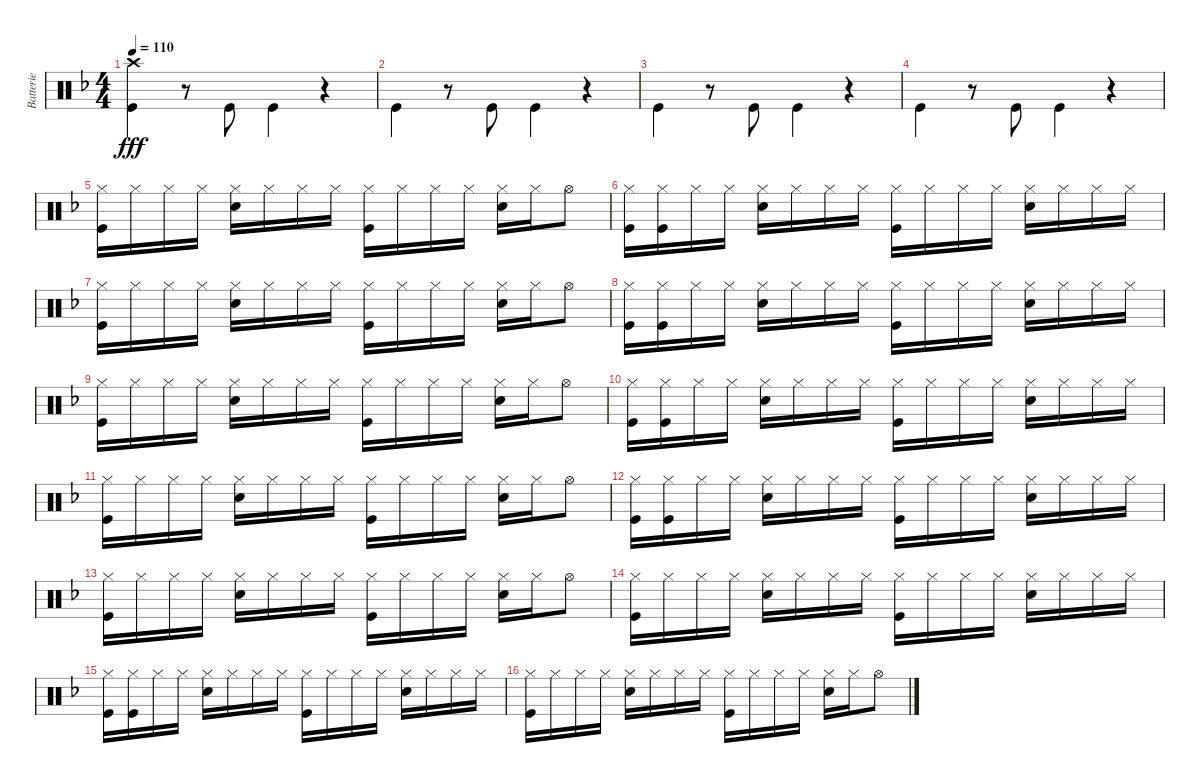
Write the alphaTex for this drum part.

\track ("Batterie" "Batterie") {instrument percussion}
\staff {score}
\articulation defaults
\ts (4 4)
\tempo 110
\clef neutral
\ks f
("Crash high (hit)" "Kick (hit)").4{dy fff} r.8 "Kick (hit)".8{beam Down} "Kick (hit)".4{beam Down} r.4 |
"Kick (hit)".4{beam Down} r.8 "Kick (hit)".8{beam Down} "Kick (hit)".4{beam Down} r.4 |
"Kick (hit)".4{beam Down} r.8 "Kick (hit)".8{beam Down} "Kick (hit)".4{beam Down} r.4 |
"Kick (hit)".4{beam Down} r.8 "Kick (hit)".8{beam Down} "Kick (hit)".4{beam Down} r.4 |
("Hi-Hat (closed)" "Kick (hit)").16 "Hi-Hat (closed)".16 "Hi-Hat (closed)".16 "Hi-Hat (closed)".16 ("Hi-Hat (closed)" "Snare (hit) 2").16 "Hi-Hat (closed)".16 "Hi-Hat (closed)".16 "Hi-Hat (closed)".16 ("Hi-Hat (closed)" "Kick (hit)").16 "Hi-Hat (closed)".16 "Hi-Hat (closed)".16 "Hi-Hat (closed)".16 ("Hi-Hat (closed)" "Snare (hit) 2").16 "Hi-Hat (closed)".16 "Hi-Hat (open)".8 |
("Hi-Hat (closed)" "Kick (hit)").16 ("Hi-Hat (closed)" "Kick (hit)").16 "Hi-Hat (closed)".16 "Hi-Hat (closed)".16 ("Hi-Hat (closed)" "Snare (hit) 2").16 "Hi-Hat (closed)".16 "Hi-Hat (closed)".16 "Hi-Hat (closed)".16 ("Hi-Hat (closed)" "Kick (hit)").16 "Hi-Hat (closed)".16 "Hi-Hat (closed)".16 "Hi-Hat (closed)".16 ("Hi-Hat (closed)" "Snare (hit) 2").16 "Hi-Hat (closed)".16 "Hi-Hat (closed)".16 "Hi-Hat (closed)".16 |
("Hi-Hat (closed)" "Kick (hit)").16 "Hi-Hat (closed)".16 "Hi-Hat (closed)".16 "Hi-Hat (closed)".16 ("Hi-Hat (closed)" "Snare (hit) 2").16 "Hi-Hat (closed)".16 "Hi-Hat (closed)".16 "Hi-Hat (closed)".16 ("Hi-Hat (closed)" "Kick (hit)").16 "Hi-Hat (closed)".16 "Hi-Hat (closed)".16 "Hi-Hat (closed)".16 ("Hi-Hat (closed)" "Snare (hit) 2").16 "Hi-Hat (closed)".16 "Hi-Hat (open)".8 |
("Hi-Hat (closed)" "Kick (hit)").16 ("Hi-Hat (closed)" "Kick (hit)").16 "Hi-Hat (closed)".16 "Hi-Hat (closed)".16 ("Hi-Hat (closed)" "Snare (hit) 2").16 "Hi-Hat (closed)".16 "Hi-Hat (closed)".16 "Hi-Hat (closed)".16 ("Hi-Hat (closed)" "Kick (hit)").16 "Hi-Hat (closed)".16 "Hi-Hat (closed)".16 "Hi-Hat (closed)".16 ("Hi-Hat (closed)" "Snare (hit) 2").16 "Hi-Hat (closed)".16 "Hi-Hat (closed)".16 "Hi-Hat (closed)".16 |
("Hi-Hat (closed)" "Kick (hit)").16 "Hi-Hat (closed)".16 "Hi-Hat (closed)".16 "Hi-Hat (closed)".16 ("Hi-Hat (closed)" "Snare (hit) 2").16 "Hi-Hat (closed)".16 "Hi-Hat (closed)".16 "Hi-Hat (closed)".16 ("Hi-Hat (closed)" "Kick (hit)").16 "Hi-Hat (closed)".16 "Hi-Hat (closed)".16 "Hi-Hat (closed)".16 ("Hi-Hat (closed)" "Snare (hit) 2").16 "Hi-Hat (closed)".16 "Hi-Hat (open)".8 |
("Hi-Hat (closed)" "Kick (hit)").16 ("Hi-Hat (closed)" "Kick (hit)").16 "Hi-Hat (closed)".16 "Hi-Hat (closed)".16 ("Hi-Hat (closed)" "Snare (hit) 2").16 "Hi-Hat (closed)".16 "Hi-Hat (closed)".16 "Hi-Hat (closed)".16 ("Hi-Hat (closed)" "Kick (hit)").16 "Hi-Hat (closed)".16 "Hi-Hat (closed)".16 "Hi-Hat (closed)".16 ("Hi-Hat (closed)" "Snare (hit) 2").16 "Hi-Hat (closed)".16 "Hi-Hat (closed)".16 "Hi-Hat (closed)".16 |
("Hi-Hat (closed)" "Kick (hit)").16 "Hi-Hat (closed)".16 "Hi-Hat (closed)".16 "Hi-Hat (closed)".16 ("Hi-Hat (closed)" "Snare (hit) 2").16 "Hi-Hat (closed)".16 "Hi-Hat (closed)".16 "Hi-Hat (closed)".16 ("Hi-Hat (closed)" "Kick (hit)").16 "Hi-Hat (closed)".16 "Hi-Hat (closed)".16 "Hi-Hat (closed)".16 ("Hi-Hat (closed)" "Snare (hit) 2").16 "Hi-Hat (closed)".16 "Hi-Hat (open)".8 |
("Hi-Hat (closed)" "Kick (hit)").16 ("Hi-Hat (closed)" "Kick (hit)").16 "Hi-Hat (closed)".16 "Hi-Hat (closed)".16 ("Hi-Hat (closed)" "Snare (hit) 2").16 "Hi-Hat (closed)".16 "Hi-Hat (closed)".16 "Hi-Hat (closed)".16 ("Hi-Hat (closed)" "Kick (hit)").16 "Hi-Hat (closed)".16 "Hi-Hat (closed)".16 "Hi-Hat (closed)".16 ("Hi-Hat (closed)" "Snare (hit) 2").16 "Hi-Hat (closed)".16 "Hi-Hat (closed)".16 "Hi-Hat (closed)".16 |
("Hi-Hat (closed)" "Kick (hit)").16 "Hi-Hat (closed)".16 "Hi-Hat (closed)".16 "Hi-Hat (closed)".16 ("Hi-Hat (closed)" "Snare (hit) 2").16 "Hi-Hat (closed)".16 "Hi-Hat (closed)".16 "Hi-Hat (closed)".16 ("Hi-Hat (closed)" "Kick (hit)").16 "Hi-Hat (closed)".16 "Hi-Hat (closed)".16 "Hi-Hat (closed)".16 ("Hi-Hat (closed)" "Snare (hit) 2").16 "Hi-Hat (closed)".16 "Hi-Hat (open)".8 |
("Hi-Hat (closed)" "Kick (hit)").16 "Hi-Hat (closed)".16 "Hi-Hat (closed)".16 "Hi-Hat (closed)".16 ("Hi-Hat (closed)" "Snare (hit) 2").16 "Hi-Hat (closed)".16 "Hi-Hat (closed)".16 "Hi-Hat (closed)".16 ("Hi-Hat (closed)" "Kick (hit)").16 "Hi-Hat (closed)".16 "Hi-Hat (closed)".16 "Hi-Hat (closed)".16 ("Hi-Hat (closed)" "Snare (hit) 2").16 "Hi-Hat (closed)".16 "Hi-Hat (closed)".16 "Hi-Hat (closed)".16 |
("Hi-Hat (closed)" "Kick (hit)").16 ("Hi-Hat (closed)" "Kick (hit)").16 "Hi-Hat (closed)".16 "Hi-Hat (closed)".16 ("Hi-Hat (closed)" "Snare (hit) 2").16 "Hi-Hat (closed)".16 "Hi-Hat (closed)".16 "Hi-Hat (closed)".16 ("Hi-Hat (closed)" "Kick (hit)").16 "Hi-Hat (closed)".16 "Hi-Hat (closed)".16 "Hi-Hat (closed)".16 ("Hi-Hat (closed)" "Snare (hit) 2").16 "Hi-Hat (closed)".16 "Hi-Hat (closed)".16 "Hi-Hat (closed)".16 |
("Hi-Hat (closed)" "Kick (hit)").16 "Hi-Hat (closed)".16 "Hi-Hat (closed)".16 "Hi-Hat (closed)".16 ("Hi-Hat (closed)" "Snare (hit) 2").16 "Hi-Hat (closed)".16 "Hi-Hat (closed)".16 "Hi-Hat (closed)".16 ("Hi-Hat (closed)" "Kick (hit)").16 "Hi-Hat (closed)".16 "Hi-Hat (closed)".16 "Hi-Hat (closed)".16 ("Hi-Hat (closed)" "Snare (hit) 2").16 "Hi-Hat (closed)".16 "Hi-Hat (open)".8
